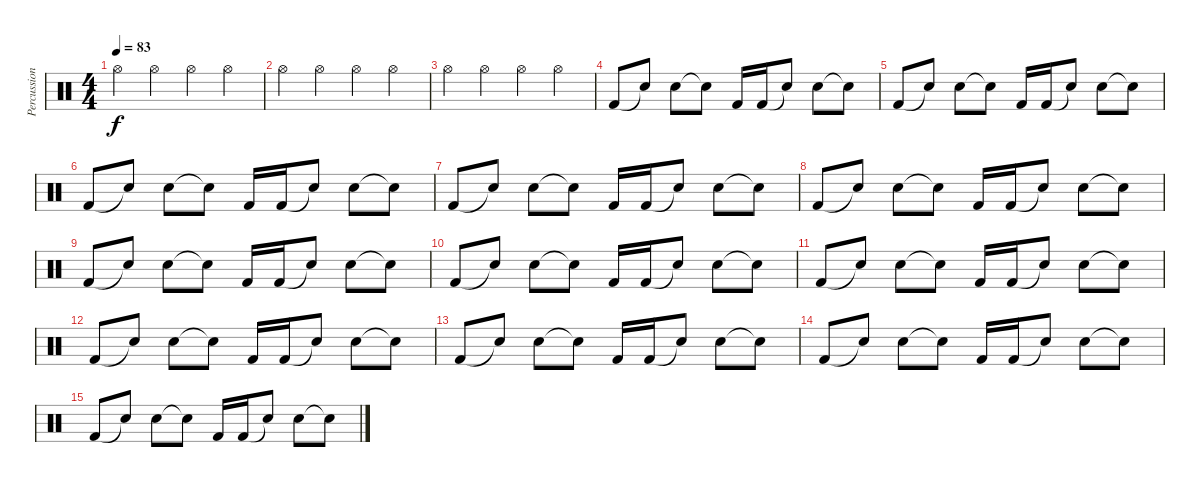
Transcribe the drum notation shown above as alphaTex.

\track ("Percussion" "Percussion") {instrument percussion}
\staff {score}
\articulation defaults
\ts (4 4)
\tempo 83
\clef neutral
\ks c "Hi-Hat (open)".4{dy f} "Hi-Hat (open)".4 "Hi-Hat (open)".4 "Hi-Hat (open)".4
|
"Hi-Hat (open)".4 "Hi-Hat (open)".4 "Hi-Hat (open)".4 "Hi-Hat (open)".4 |
"Hi-Hat (open)".4 "Hi-Hat (open)".4 "Hi-Hat (open)".4 "Hi-Hat (open)".4 |
"Kick (hit) 2".8 "Snare (hit)"{t}.8 "Snare (hit) 2".8 "Snare (hit)"{t}.8 "Kick (hit) 2".16 "Kick (hit) 2".16 "Snare (hit)"{t}.8 "Snare (hit) 2".8 "Snare (hit)"{t}.8 |
"Kick (hit) 2".8 "Snare (hit)"{t}.8 "Snare (hit) 2".8 "Snare (hit)"{t}.8 "Kick (hit) 2".16 "Kick (hit) 2".16 "Snare (hit)"{t}.8 "Snare (hit) 2".8 "Snare (hit)"{t}.8 |
"Kick (hit) 2".8 "Snare (hit)"{t}.8 "Snare (hit) 2".8 "Snare (hit)"{t}.8 "Kick (hit) 2".16 "Kick (hit) 2".16 "Snare (hit)"{t}.8 "Snare (hit) 2".8 "Snare (hit)"{t}.8 |
"Kick (hit) 2".8 "Snare (hit)"{t}.8 "Snare (hit) 2".8 "Snare (hit)"{t}.8 "Kick (hit) 2".16 "Kick (hit) 2".16 "Snare (hit)"{t}.8 "Snare (hit) 2".8 "Snare (hit)"{t}.8 |
"Kick (hit) 2".8 "Snare (hit)"{t}.8 "Snare (hit) 2".8 "Snare (hit)"{t}.8 "Kick (hit) 2".16 "Kick (hit) 2".16 "Snare (hit)"{t}.8 "Snare (hit) 2".8 "Snare (hit)"{t}.8 |
"Kick (hit) 2".8 "Snare (hit)"{t}.8 "Snare (hit) 2".8 "Snare (hit)"{t}.8 "Kick (hit) 2".16 "Kick (hit) 2".16 "Snare (hit)"{t}.8 "Snare (hit) 2".8 "Snare (hit)"{t}.8 |
"Kick (hit) 2".8 "Snare (hit)"{t}.8 "Snare (hit) 2".8 "Snare (hit)"{t}.8 "Kick (hit) 2".16 "Kick (hit) 2".16 "Snare (hit)"{t}.8 "Snare (hit) 2".8 "Snare (hit)"{t}.8 |
"Kick (hit) 2".8 "Snare (hit)"{t}.8 "Snare (hit) 2".8 "Snare (hit)"{t}.8 "Kick (hit) 2".16 "Kick (hit) 2".16 "Snare (hit)"{t}.8 "Snare (hit) 2".8 "Snare (hit)"{t}.8 |
"Kick (hit) 2".8 "Snare (hit)"{t}.8 "Snare (hit) 2".8 "Snare (hit)"{t}.8 "Kick (hit) 2".16 "Kick (hit) 2".16 "Snare (hit)"{t}.8 "Snare (hit) 2".8 "Snare (hit)"{t}.8 |
"Kick (hit) 2".8 "Snare (hit)"{t}.8 "Snare (hit) 2".8 "Snare (hit)"{t}.8 "Kick (hit) 2".16 "Kick (hit) 2".16 "Snare (hit)"{t}.8 "Snare (hit) 2".8 "Snare (hit)"{t}.8 |
"Kick (hit) 2".8 "Snare (hit)"{t}.8 "Snare (hit) 2".8 "Snare (hit)"{t}.8 "Kick (hit) 2".16 "Kick (hit) 2".16 "Snare (hit)"{t}.8 "Snare (hit) 2".8 "Snare (hit)"{t}.8 |
"Kick (hit) 2".8 "Snare (hit)"{t}.8 "Snare (hit) 2".8 "Snare (hit)"{t}.8 "Kick (hit) 2".16 "Kick (hit) 2".16 "Snare (hit)"{t}.8 "Snare (hit) 2".8 "Snare (hit)"{t}.8
